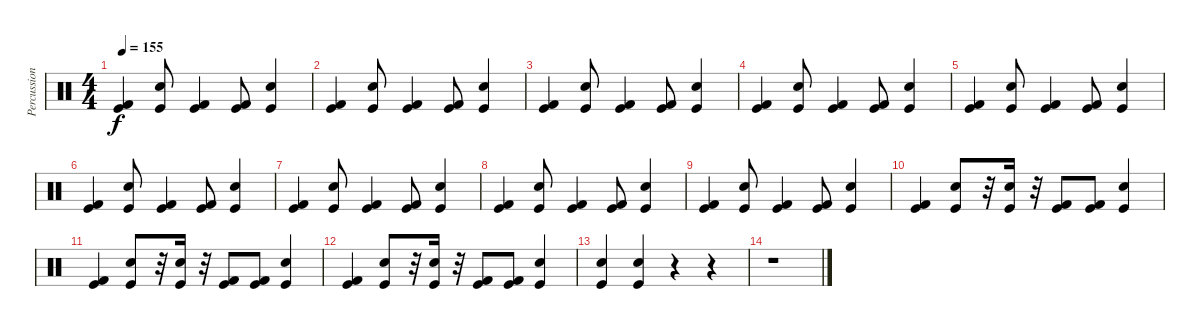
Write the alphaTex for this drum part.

\track ("Percussion" "Percussion") {instrument percussion}
\staff {score}
\articulation defaults
\ts (4 4)
\tempo 155
\clef neutral
\ks c
("Kick (hit) 2" "Kick (hit)").4{dy f} ("Electric Snare (hit)" "Kick (hit)").8 ("Kick (hit) 2" "Kick (hit)").4 ("Kick (hit) 2" "Kick (hit)").8 ("Electric Snare (hit)" "Kick (hit)").4 |
("Kick (hit) 2" "Kick (hit)").4 ("Electric Snare (hit)" "Kick (hit)").8 ("Kick (hit) 2" "Kick (hit)").4 ("Kick (hit) 2" "Kick (hit)").8 ("Electric Snare (hit)" "Kick (hit)").4 |
("Kick (hit) 2" "Kick (hit)").4 ("Electric Snare (hit)" "Kick (hit)").8 ("Kick (hit) 2" "Kick (hit)").4 ("Kick (hit) 2" "Kick (hit)").8 ("Electric Snare (hit)" "Kick (hit)").4 |
("Kick (hit) 2" "Kick (hit)").4 ("Electric Snare (hit)" "Kick (hit)").8 ("Kick (hit) 2" "Kick (hit)").4 ("Kick (hit) 2" "Kick (hit)").8 ("Electric Snare (hit)" "Kick (hit)").4 |
("Kick (hit) 2" "Kick (hit)").4 ("Electric Snare (hit)" "Kick (hit)").8 ("Kick (hit) 2" "Kick (hit)").4 ("Kick (hit) 2" "Kick (hit)").8 ("Electric Snare (hit)" "Kick (hit)").4 |
("Kick (hit) 2" "Kick (hit)").4 ("Electric Snare (hit)" "Kick (hit)").8 ("Kick (hit) 2" "Kick (hit)").4 ("Kick (hit) 2" "Kick (hit)").8 ("Electric Snare (hit)" "Kick (hit)").4 |
("Kick (hit) 2" "Kick (hit)").4 ("Electric Snare (hit)" "Kick (hit)").8 ("Kick (hit) 2" "Kick (hit)").4 ("Kick (hit) 2" "Kick (hit)").8 ("Electric Snare (hit)" "Kick (hit)").4 |
("Kick (hit) 2" "Kick (hit)").4 ("Electric Snare (hit)" "Kick (hit)").8 ("Kick (hit) 2" "Kick (hit)").4 ("Kick (hit) 2" "Kick (hit)").8 ("Electric Snare (hit)" "Kick (hit)").4 |
("Kick (hit) 2" "Kick (hit)").4 ("Electric Snare (hit)" "Kick (hit)").8 ("Kick (hit) 2" "Kick (hit)").4 ("Kick (hit) 2" "Kick (hit)").8 ("Electric Snare (hit)" "Kick (hit)").4 |
("Kick (hit) 2" "Kick (hit)").4 ("Electric Snare (hit)" "Kick (hit)").8 r.32 ("Electric Snare (hit)" "Kick (hit)").16 r.32 ("Kick (hit) 2" "Kick (hit)").8 ("Kick (hit) 2" "Kick (hit)").8 ("Electric Snare (hit)" "Kick (hit)").4 |
("Kick (hit) 2" "Kick (hit)").4 ("Electric Snare (hit)" "Kick (hit)").8 r.32 ("Electric Snare (hit)" "Kick (hit)").16 r.32 ("Kick (hit) 2" "Kick (hit)").8 ("Kick (hit) 2" "Kick (hit)").8 ("Electric Snare (hit)" "Kick (hit)").4 |
("Kick (hit) 2" "Kick (hit)").4 ("Electric Snare (hit)" "Kick (hit)").8 r.32 ("Electric Snare (hit)" "Kick (hit)").16 r.32 ("Kick (hit) 2" "Kick (hit)").8 ("Kick (hit) 2" "Kick (hit)").8 ("Electric Snare (hit)" "Kick (hit)").4 |
("Electric Snare (hit)"{pm} "Kick (hit)"{pm}).4 ("Electric Snare (hit)" "Kick (hit)").4 r.4 r.4 |
r.1
